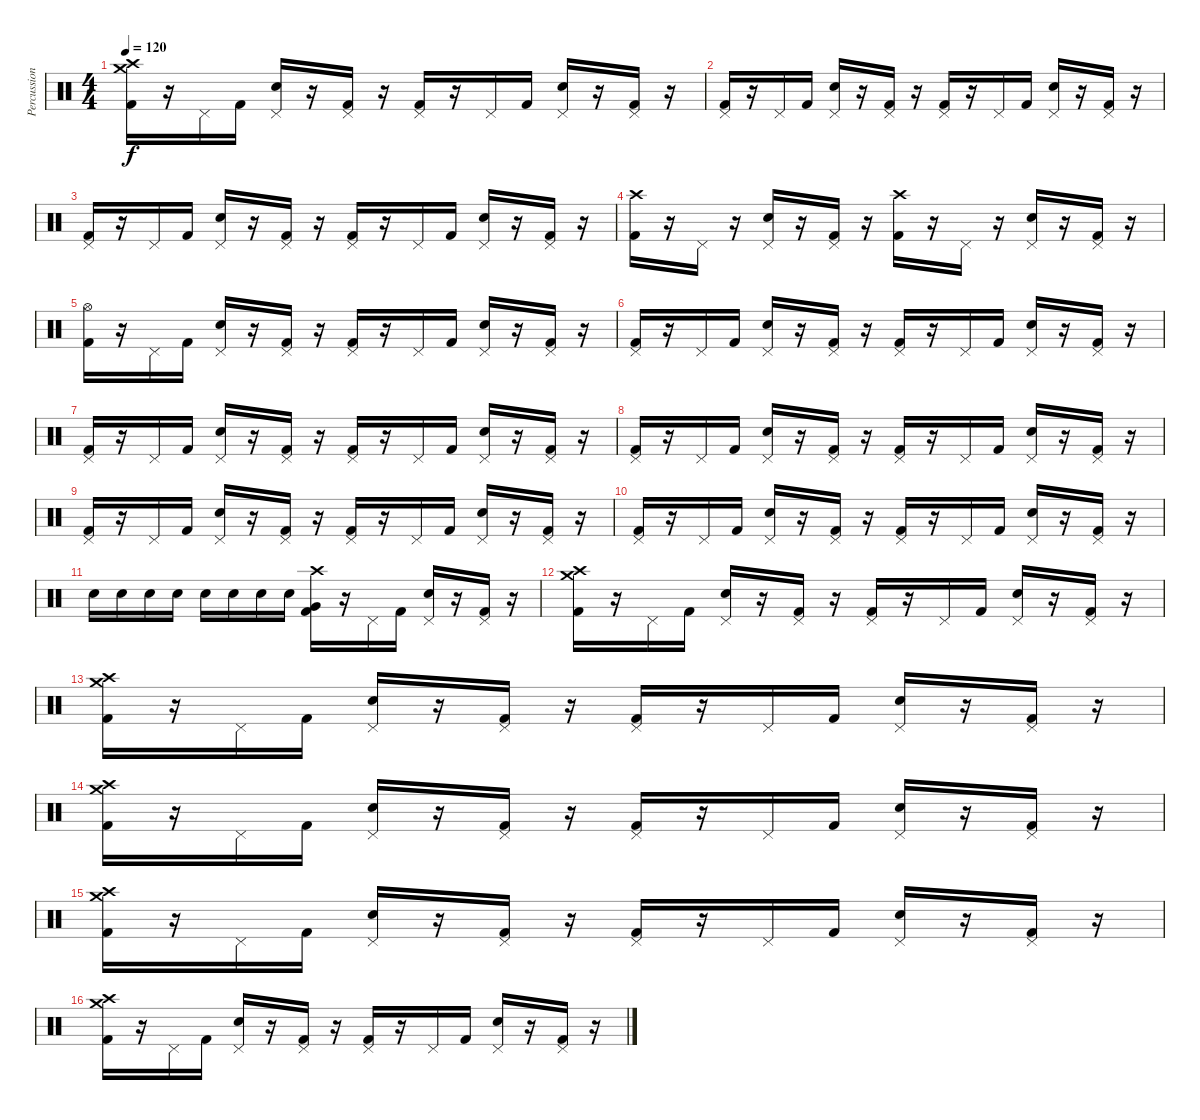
\track ("Percussion" "Percussion") {instrument percussion}
\staff {score}
\articulation defaults
\ts (4 4)
\tempo 120
\clef neutral
\ks c
("Crash medium (hit)" "Crash high (hit)" "Kick (hit) 2").16{dy f} r.16 "Pedal Hi-Hat (hit)".16 "Kick (hit) 2".16 ("Pedal Hi-Hat (hit)" "Snare (hit) 2").16 r.16 ("Pedal Hi-Hat (hit)" "Kick (hit) 2").16 r.16 ("Pedal Hi-Hat (hit)" "Kick (hit) 2").16 r.16 "Pedal Hi-Hat (hit)".16 "Kick (hit) 2".16 ("Pedal Hi-Hat (hit)" "Snare (hit) 2").16 r.16 ("Pedal Hi-Hat (hit)" "Kick (hit) 2").16 r.16 |
("Pedal Hi-Hat (hit)" "Kick (hit) 2").16 r.16 "Pedal Hi-Hat (hit)".16 "Kick (hit) 2".16 ("Pedal Hi-Hat (hit)" "Snare (hit) 2").16 r.16 ("Pedal Hi-Hat (hit)" "Kick (hit) 2").16 r.16 ("Pedal Hi-Hat (hit)" "Kick (hit) 2").16 r.16 "Pedal Hi-Hat (hit)".16 "Kick (hit) 2".16 ("Pedal Hi-Hat (hit)" "Snare (hit) 2").16 r.16 ("Pedal Hi-Hat (hit)" "Kick (hit) 2").16 r.16 |
("Pedal Hi-Hat (hit)" "Kick (hit) 2").16 r.16 "Pedal Hi-Hat (hit)".16 "Kick (hit) 2".16 ("Pedal Hi-Hat (hit)" "Snare (hit) 2").16 r.16 ("Pedal Hi-Hat (hit)" "Kick (hit) 2").16 r.16 ("Pedal Hi-Hat (hit)" "Kick (hit) 2").16 r.16 "Pedal Hi-Hat (hit)".16 "Kick (hit) 2".16 ("Pedal Hi-Hat (hit)" "Snare (hit) 2").16 r.16 ("Pedal Hi-Hat (hit)" "Kick (hit) 2").16 r.16 |
("Crash high (hit)" "Kick (hit) 2").16 r.16 "Pedal Hi-Hat (hit)".16 r.16 ("Pedal Hi-Hat (hit)" "Snare (hit) 2").16 r.16 ("Pedal Hi-Hat (hit)" "Kick (hit) 2").16 r.16 ("Crash high (hit)" "Kick (hit) 2").16 r.16 "Pedal Hi-Hat (hit)".16 r.16 ("Pedal Hi-Hat (hit)" "Snare (hit) 2").16 r.16 ("Pedal Hi-Hat (hit)" "Kick (hit) 2").16 r.16 |
("Hi-Hat (open)" "Kick (hit) 2").16 r.16 "Pedal Hi-Hat (hit)".16 "Kick (hit) 2".16 ("Pedal Hi-Hat (hit)" "Snare (hit) 2").16 r.16 ("Pedal Hi-Hat (hit)" "Kick (hit) 2").16 r.16 ("Pedal Hi-Hat (hit)" "Kick (hit) 2").16 r.16 "Pedal Hi-Hat (hit)".16 "Kick (hit) 2".16 ("Pedal Hi-Hat (hit)" "Snare (hit) 2").16 r.16 ("Pedal Hi-Hat (hit)" "Kick (hit) 2").16 r.16 |
("Pedal Hi-Hat (hit)" "Kick (hit) 2").16 r.16 "Pedal Hi-Hat (hit)".16 "Kick (hit) 2".16 ("Pedal Hi-Hat (hit)" "Snare (hit) 2").16 r.16 ("Pedal Hi-Hat (hit)" "Kick (hit) 2").16 r.16 ("Pedal Hi-Hat (hit)" "Kick (hit) 2").16 r.16 "Pedal Hi-Hat (hit)".16 "Kick (hit) 2".16 ("Pedal Hi-Hat (hit)" "Snare (hit) 2").16 r.16 ("Pedal Hi-Hat (hit)" "Kick (hit) 2").16 r.16 |
("Pedal Hi-Hat (hit)" "Kick (hit) 2").16 r.16 "Pedal Hi-Hat (hit)".16 "Kick (hit) 2".16 ("Pedal Hi-Hat (hit)" "Snare (hit) 2").16 r.16 ("Pedal Hi-Hat (hit)" "Kick (hit) 2").16 r.16 ("Pedal Hi-Hat (hit)" "Kick (hit) 2").16 r.16 "Pedal Hi-Hat (hit)".16 "Kick (hit) 2".16 ("Pedal Hi-Hat (hit)" "Snare (hit) 2").16 r.16 ("Pedal Hi-Hat (hit)" "Kick (hit) 2").16 r.16 |
("Pedal Hi-Hat (hit)" "Kick (hit) 2").16 r.16 "Pedal Hi-Hat (hit)".16 "Kick (hit) 2".16 ("Pedal Hi-Hat (hit)" "Snare (hit) 2").16 r.16 ("Pedal Hi-Hat (hit)" "Kick (hit) 2").16 r.16 ("Pedal Hi-Hat (hit)" "Kick (hit) 2").16 r.16 "Pedal Hi-Hat (hit)".16 "Kick (hit) 2".16 ("Pedal Hi-Hat (hit)" "Snare (hit) 2").16 r.16 ("Pedal Hi-Hat (hit)" "Kick (hit) 2").16 r.16 |
("Pedal Hi-Hat (hit)" "Kick (hit) 2").16 r.16 "Pedal Hi-Hat (hit)".16 "Kick (hit) 2".16 ("Pedal Hi-Hat (hit)" "Snare (hit) 2").16 r.16 ("Pedal Hi-Hat (hit)" "Kick (hit) 2").16 r.16 ("Pedal Hi-Hat (hit)" "Kick (hit) 2").16 r.16 "Pedal Hi-Hat (hit)".16 "Kick (hit) 2".16 ("Pedal Hi-Hat (hit)" "Snare (hit) 2").16 r.16 ("Pedal Hi-Hat (hit)" "Kick (hit) 2").16 r.16 |
("Pedal Hi-Hat (hit)" "Kick (hit) 2").16 r.16 "Pedal Hi-Hat (hit)".16 "Kick (hit) 2".16 ("Pedal Hi-Hat (hit)" "Snare (hit) 2").16 r.16 ("Pedal Hi-Hat (hit)" "Kick (hit) 2").16 r.16 ("Pedal Hi-Hat (hit)" "Kick (hit) 2").16 r.16 "Pedal Hi-Hat (hit)".16 "Kick (hit) 2".16 ("Pedal Hi-Hat (hit)" "Snare (hit) 2").16 r.16 ("Pedal Hi-Hat (hit)" "Kick (hit) 2").16 r.16 |
"Snare (hit) 2".16 "Snare (hit) 2".16 "Snare (hit) 2".16 "Snare (hit) 2".16 "Snare (hit) 2".16 "Snare (hit) 2".16 "Snare (hit) 2".16 "Snare (hit) 2".16 ("Crash high (hit)" "Very Low Tom (hit)" "Kick (hit) 2").16 r.16 "Pedal Hi-Hat (hit)".16 "Kick (hit) 2".16 ("Pedal Hi-Hat (hit)" "Snare (hit) 2").16 r.16 ("Pedal Hi-Hat (hit)" "Kick (hit) 2").16 r.16 |
("Crash medium (hit)" "Crash high (hit)" "Kick (hit) 2").16 r.16 "Pedal Hi-Hat (hit)".16 "Kick (hit) 2".16 ("Pedal Hi-Hat (hit)" "Snare (hit) 2").16 r.16 ("Pedal Hi-Hat (hit)" "Kick (hit) 2").16 r.16 ("Pedal Hi-Hat (hit)" "Kick (hit) 2").16 r.16 "Pedal Hi-Hat (hit)".16 "Kick (hit) 2".16 ("Pedal Hi-Hat (hit)" "Snare (hit) 2").16 r.16 ("Pedal Hi-Hat (hit)" "Kick (hit) 2").16 r.16 |
("Crash medium (hit)" "Crash high (hit)" "Kick (hit) 2").16 r.16 "Pedal Hi-Hat (hit)".16 "Kick (hit) 2".16 ("Pedal Hi-Hat (hit)" "Snare (hit) 2").16 r.16 ("Pedal Hi-Hat (hit)" "Kick (hit) 2").16 r.16 ("Pedal Hi-Hat (hit)" "Kick (hit) 2").16 r.16 "Pedal Hi-Hat (hit)".16 "Kick (hit) 2".16 ("Pedal Hi-Hat (hit)" "Snare (hit) 2").16 r.16 ("Pedal Hi-Hat (hit)" "Kick (hit) 2").16 r.16 |
("Crash medium (hit)" "Crash high (hit)" "Kick (hit) 2").16 r.16 "Pedal Hi-Hat (hit)".16 "Kick (hit) 2".16 ("Pedal Hi-Hat (hit)" "Snare (hit) 2").16 r.16 ("Pedal Hi-Hat (hit)" "Kick (hit) 2").16 r.16 ("Pedal Hi-Hat (hit)" "Kick (hit) 2").16 r.16 "Pedal Hi-Hat (hit)".16 "Kick (hit) 2".16 ("Pedal Hi-Hat (hit)" "Snare (hit) 2").16 r.16 ("Pedal Hi-Hat (hit)" "Kick (hit) 2").16 r.16 |
("Crash medium (hit)" "Crash high (hit)" "Kick (hit) 2").16 r.16 "Pedal Hi-Hat (hit)".16 "Kick (hit) 2".16 ("Pedal Hi-Hat (hit)" "Snare (hit) 2").16 r.16 ("Pedal Hi-Hat (hit)" "Kick (hit) 2").16 r.16 ("Pedal Hi-Hat (hit)" "Kick (hit) 2").16 r.16 "Pedal Hi-Hat (hit)".16 "Kick (hit) 2".16 ("Pedal Hi-Hat (hit)" "Snare (hit) 2").16 r.16 ("Pedal Hi-Hat (hit)" "Kick (hit) 2").16 r.16 |
("Crash medium (hit)" "Crash high (hit)" "Kick (hit) 2").16 r.16 "Pedal Hi-Hat (hit)".16 "Kick (hit) 2".16 ("Pedal Hi-Hat (hit)" "Snare (hit) 2").16 r.16 ("Pedal Hi-Hat (hit)" "Kick (hit) 2").16 r.16 ("Pedal Hi-Hat (hit)" "Kick (hit) 2").16 r.16 "Pedal Hi-Hat (hit)".16 "Kick (hit) 2".16 ("Pedal Hi-Hat (hit)" "Snare (hit) 2").16 r.16 ("Pedal Hi-Hat (hit)" "Kick (hit) 2").16 r.16
